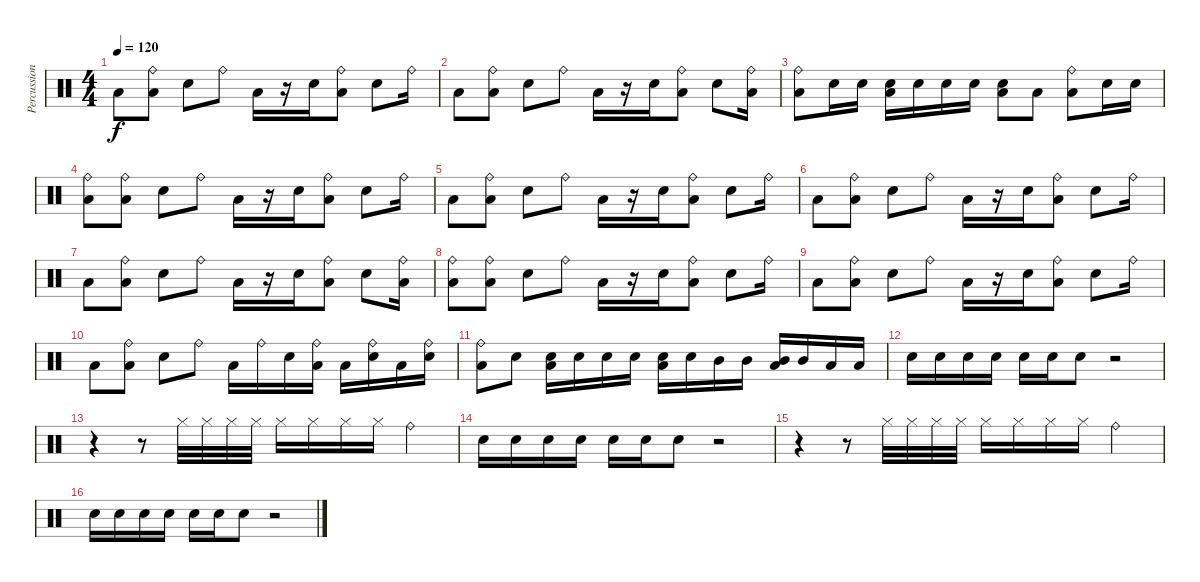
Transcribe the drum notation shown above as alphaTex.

\track ("Percussion" "Percussion") {instrument percussion}
\staff {score}
\articulation defaults
\ts (4 4)
\tempo 120
\clef neutral
\ks c "Low Floor Tom (hit)".8{dy f}
("Ride (bell)" "Low Floor Tom (hit)").8 "Snare (hit) 2".8 "Ride (bell)".8 "Low Floor Tom (hit)".16 r.16 "Snare (hit) 2".16 ("Ride (bell)" "Low Floor Tom (hit)").8 "Snare (hit) 2".8 "Ride (bell)".16 |
"Low Floor Tom (hit)".8 ("Ride (bell)" "Low Floor Tom (hit)").8 "Snare (hit) 2".8 "Ride (bell)".8 "Low Floor Tom (hit)".16 r.16 "Snare (hit) 2".16 ("Ride (bell)" "Low Floor Tom (hit)").8 "Snare (hit) 2".8 ("Ride (bell)" "Low Floor Tom (hit)").16 |
("Ride (bell)" "Low Floor Tom (hit)").8 "Snare (hit) 2".16 "Snare (hit) 2".16 ("Snare (hit) 2" "Low Floor Tom (hit)").16 "Snare (hit) 2".16 "Snare (hit) 2".16 "Snare (hit) 2".16 ("Snare (hit) 2" "Low Floor Tom (hit)").8 "Low Tom (hit)".8 ("Ride (bell)" "Low Floor Tom (hit)").8 "Snare (hit) 2".16 "Snare (hit) 2".16 |
("Ride (bell)" "Low Floor Tom (hit)").8 ("Ride (bell)" "Low Floor Tom (hit)").8 "Snare (hit) 2".8 "Ride (bell)".8 "Low Floor Tom (hit)".16 r.16 "Snare (hit) 2".16 ("Ride (bell)" "Low Floor Tom (hit)").8 "Snare (hit) 2".8 "Ride (bell)".16 |
"Low Floor Tom (hit)".8 ("Ride (bell)" "Low Floor Tom (hit)").8 "Snare (hit) 2".8 "Ride (bell)".8 "Low Floor Tom (hit)".16 r.16 "Snare (hit) 2".16 ("Ride (bell)" "Low Floor Tom (hit)").8 "Snare (hit) 2".8 "Ride (bell)".16 |
"Low Floor Tom (hit)".8 ("Ride (bell)" "Low Floor Tom (hit)").8 "Snare (hit) 2".8 "Ride (bell)".8 "Low Floor Tom (hit)".16 r.16 "Snare (hit) 2".16 ("Ride (bell)" "Low Floor Tom (hit)").8 "Snare (hit) 2".8 "Ride (bell)".16 |
"Low Floor Tom (hit)".8 ("Ride (bell)" "Low Floor Tom (hit)").8 "Snare (hit) 2".8 "Ride (bell)".8 "Low Floor Tom (hit)".16 r.16 "Snare (hit) 2".16 ("Ride (bell)" "Low Floor Tom (hit)").8 "Snare (hit) 2".8 ("Ride (bell)" "Low Floor Tom (hit)").16 |
("Ride (bell)" "Low Floor Tom (hit)").8 ("Ride (bell)" "Low Floor Tom (hit)").8 "Snare (hit) 2".8 "Ride (bell)".8 "Low Floor Tom (hit)".16 r.16 "Snare (hit) 2".16 ("Ride (bell)" "Low Floor Tom (hit)").8 "Snare (hit) 2".8 "Ride (bell)".16 |
"Low Floor Tom (hit)".8 ("Ride (bell)" "Low Floor Tom (hit)").8 "Snare (hit) 2".8 "Ride (bell)".8 "Low Floor Tom (hit)".16 r.16 "Snare (hit) 2".16 ("Ride (bell)" "Low Floor Tom (hit)").8 "Snare (hit) 2".8 "Ride (bell)".16 |
"Low Floor Tom (hit)".8 ("Ride (bell)" "Low Floor Tom (hit)").8 "Snare (hit) 2".8 "Ride (bell)".8 "Low Floor Tom (hit)".16 "Ride (bell)".16 "Snare (hit) 2".16 ("Ride (bell)" "Low Floor Tom (hit)").16 "Low Floor Tom (hit)".16 ("Ride (bell)" "Snare (hit) 2").16 "Low Floor Tom (hit)".16 ("Ride (bell)" "Snare (hit) 2").16 |
("Ride (bell)" "Low Floor Tom (hit)").8 "Snare (hit) 2".8 ("Snare (hit) 2" "Low Floor Tom (hit)").16 "Snare (hit) 2".16 "Snare (hit) 2".16 "Snare (hit) 2".16 ("Snare (hit) 2" "Low Floor Tom (hit)").16 "Snare (hit) 2".16 "Mid Tom (hit)".16 "Mid Tom (hit)".16 ("Mid Tom (hit)" "Low Floor Tom (hit)").16 "Mid Tom (hit)".16 "Low Tom (hit)".16 "Low Tom (hit)".16 |
"Snare (hit) 2".16 "Snare (hit) 2".16 "Snare (hit) 2".16 "Snare (hit) 2".16 "Snare (hit) 2".16 "Snare (hit) 2".16 "Snare (hit) 2".8 r.2 |
r.4 r.8 "Hi-Hat (closed)".32 "Hi-Hat (closed)".32 "Hi-Hat (closed)".32 "Hi-Hat (closed)".32 "Hi-Hat (closed)".16 "Hi-Hat (closed)".16 "Hi-Hat (closed)".16 "Hi-Hat (closed)".16 "Ride (bell)".4 |
"Snare (hit) 2".16 "Snare (hit) 2".16 "Snare (hit) 2".16 "Snare (hit) 2".16 "Snare (hit) 2".16 "Snare (hit) 2".16 "Snare (hit) 2".8 r.2 |
r.4 r.8 "Hi-Hat (closed)".32 "Hi-Hat (closed)".32 "Hi-Hat (closed)".32 "Hi-Hat (closed)".32 "Hi-Hat (closed)".16 "Hi-Hat (closed)".16 "Hi-Hat (closed)".16 "Hi-Hat (closed)".16 "Ride (bell)".4 |
"Snare (hit) 2".16 "Snare (hit) 2".16 "Snare (hit) 2".16 "Snare (hit) 2".16 "Snare (hit) 2".16 "Snare (hit) 2".16 "Snare (hit) 2".8 r.2
